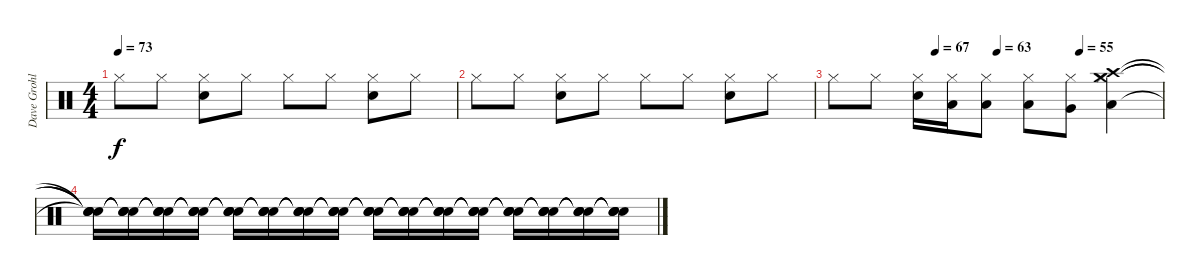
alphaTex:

\track ("Dave Grohl (Nirvana)" "Dave Grohl") {instrument percussion}
\staff {score}
\articulation defaults
\ts (4 4)
\tempo 73
\clef neutral
\ks c "Hi-Hat (closed)".8{dy f} "Hi-Hat (closed)".8
("Electric Snare (hit)" "Hi-Hat (closed)").8 "Hi-Hat (closed)".8 "Hi-Hat (closed)".8 "Hi-Hat (closed)".8 ("Electric Snare (hit)" "Hi-Hat (closed)").8 "Hi-Hat (closed)".8 |
"Hi-Hat (closed)".8 "Hi-Hat (closed)".8 ("Electric Snare (hit)" "Hi-Hat (closed)").8 "Hi-Hat (closed)".8 "Hi-Hat (closed)".8 "Hi-Hat (closed)".8 ("Electric Snare (hit)" "Hi-Hat (closed)").8 "Hi-Hat (closed)".8 |
\tempo (67 0.3125)
\tempo (63 0.5)
\tempo (55 0.75)
"Hi-Hat (closed)".8 "Hi-Hat (closed)".8 ("Electric Snare (hit)" "Hi-Hat (closed)").16 ("Low Tom (hit)" "Hi-Hat (closed)").16 ("Low Tom (hit)" "Hi-Hat (closed)").8 ("Low Tom (hit)" "Hi-Hat (closed)").8 ("Very Low Tom (hit)" "Hi-Hat (closed)").8 ("Crash medium (hit)" "Crash high (hit)" "Low Floor Tom (hit)" "Hi-Hat (closed)").4 |
("Snare (hit)"{t} "Snare (hit)"{t} "Snare (hit)"{t} "Snare (hit)"{t}).16 ("Snare (hit)"{t} "Snare (hit)"{t} "Snare (hit)"{t} "Snare (hit)"{t}).16 ("Snare (hit)"{t} "Snare (hit)"{t} "Snare (hit)"{t} "Snare (hit)"{t}).16 ("Snare (hit)"{t} "Snare (hit)"{t} "Snare (hit)"{t} "Snare (hit)"{t}).16 ("Snare (hit)"{t} "Snare (hit)"{t} "Snare (hit)"{t} "Snare (hit)"{t}).16 ("Snare (hit)"{t} "Snare (hit)"{t} "Snare (hit)"{t} "Snare (hit)"{t}).16 ("Snare (hit)"{t} "Snare (hit)"{t} "Snare (hit)"{t} "Snare (hit)"{t}).16 ("Snare (hit)"{t} "Snare (hit)"{t} "Snare (hit)"{t} "Snare (hit)"{t}).16 ("Snare (hit)"{t} "Snare (hit)"{t} "Snare (hit)"{t} "Snare (hit)"{t}).16 ("Snare (hit)"{t} "Snare (hit)"{t} "Snare (hit)"{t} "Snare (hit)"{t}).16 ("Snare (hit)"{t} "Snare (hit)"{t} "Snare (hit)"{t} "Snare (hit)"{t}).16 ("Snare (hit)"{t} "Snare (hit)"{t} "Snare (hit)"{t} "Snare (hit)"{t}).16 ("Snare (hit)"{t} "Snare (hit)"{t} "Snare (hit)"{t} "Snare (hit)"{t}).16 ("Snare (hit)"{t} "Snare (hit)"{t} "Snare (hit)"{t} "Snare (hit)"{t}).16 ("Snare (hit)"{t} "Snare (hit)"{t} "Snare (hit)"{t} "Snare (hit)"{t}).16 ("Snare (hit)"{t} "Snare (hit)"{t} "Snare (hit)"{t} "Snare (hit)"{t}).16
